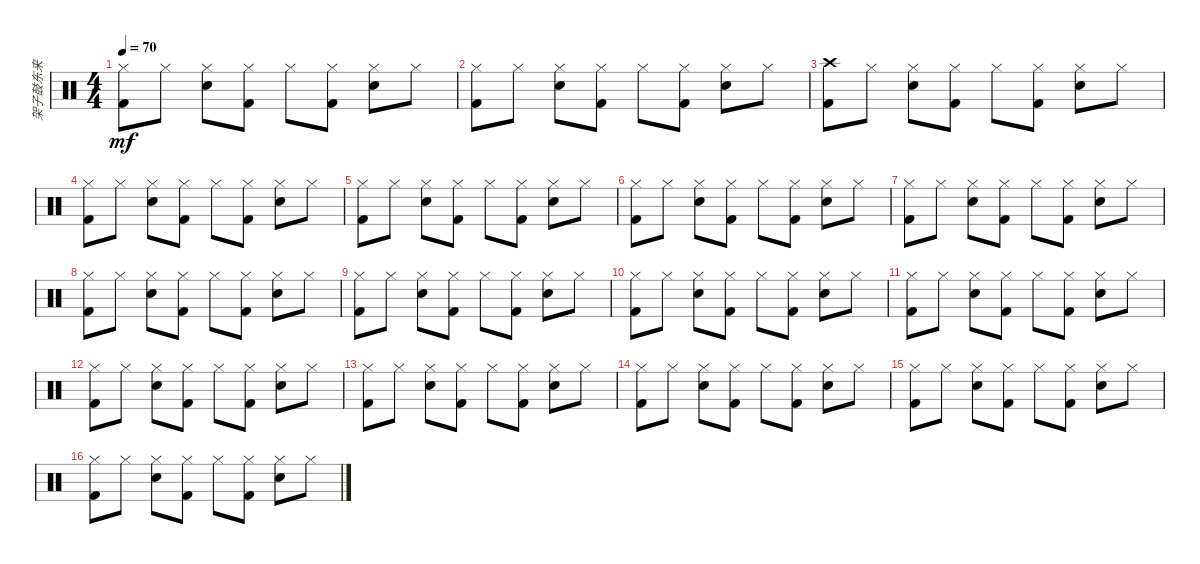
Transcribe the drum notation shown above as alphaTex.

\track ("架子鼓东来" "架子鼓东来") {instrument percussion}
\staff {score}
\articulation defaults
\ts (4 4)
\tempo 70
\clef neutral
\ks c
("Hi-Hat (closed)" "Kick (hit) 2").8{dy mf} "Hi-Hat (closed)".8 ("Hi-Hat (closed)" "Snare (hit) 2").8 ("Hi-Hat (closed)" "Kick (hit) 2").8 "Hi-Hat (closed)".8 ("Hi-Hat (closed)" "Kick (hit) 2").8 ("Hi-Hat (closed)" "Snare (hit) 2").8 "Hi-Hat (closed)".8 |
("Hi-Hat (closed)" "Kick (hit) 2").8 "Hi-Hat (closed)".8 ("Hi-Hat (closed)" "Snare (hit) 2").8 ("Hi-Hat (closed)" "Kick (hit) 2").8 "Hi-Hat (closed)".8 ("Hi-Hat (closed)" "Kick (hit) 2").8 ("Hi-Hat (closed)" "Snare (hit) 2").8 "Hi-Hat (closed)".8 |
("Crash high (hit)" "Kick (hit) 2").8 "Hi-Hat (closed)".8 ("Hi-Hat (closed)" "Snare (hit) 2").8 ("Hi-Hat (closed)" "Kick (hit) 2").8 "Hi-Hat (closed)".8 ("Hi-Hat (closed)" "Kick (hit) 2").8 ("Hi-Hat (closed)" "Snare (hit) 2").8 "Hi-Hat (closed)".8 |
("Hi-Hat (closed)" "Kick (hit) 2").8 "Hi-Hat (closed)".8 ("Hi-Hat (closed)" "Snare (hit) 2").8 ("Hi-Hat (closed)" "Kick (hit) 2").8 "Hi-Hat (closed)".8 ("Hi-Hat (closed)" "Kick (hit) 2").8 ("Hi-Hat (closed)" "Snare (hit) 2").8 "Hi-Hat (closed)".8 |
("Hi-Hat (closed)" "Kick (hit) 2").8 "Hi-Hat (closed)".8 ("Hi-Hat (closed)" "Snare (hit) 2").8 ("Hi-Hat (closed)" "Kick (hit) 2").8 "Hi-Hat (closed)".8 ("Hi-Hat (closed)" "Kick (hit) 2").8 ("Hi-Hat (closed)" "Snare (hit) 2").8 "Hi-Hat (closed)".8 |
("Hi-Hat (closed)" "Kick (hit) 2").8 "Hi-Hat (closed)".8 ("Hi-Hat (closed)" "Snare (hit) 2").8 ("Hi-Hat (closed)" "Kick (hit) 2").8 "Hi-Hat (closed)".8 ("Hi-Hat (closed)" "Kick (hit) 2").8 ("Hi-Hat (closed)" "Snare (hit) 2").8 "Hi-Hat (closed)".8 |
("Hi-Hat (closed)" "Kick (hit) 2").8 "Hi-Hat (closed)".8 ("Hi-Hat (closed)" "Snare (hit) 2").8 ("Hi-Hat (closed)" "Kick (hit) 2").8 "Hi-Hat (closed)".8 ("Hi-Hat (closed)" "Kick (hit) 2").8 ("Hi-Hat (closed)" "Snare (hit) 2").8 "Hi-Hat (closed)".8 |
("Hi-Hat (closed)" "Kick (hit) 2").8 "Hi-Hat (closed)".8 ("Hi-Hat (closed)" "Snare (hit) 2").8 ("Hi-Hat (closed)" "Kick (hit) 2").8 "Hi-Hat (closed)".8 ("Hi-Hat (closed)" "Kick (hit) 2").8 ("Hi-Hat (closed)" "Snare (hit) 2").8 "Hi-Hat (closed)".8 |
("Hi-Hat (closed)" "Kick (hit) 2").8 "Hi-Hat (closed)".8 ("Hi-Hat (closed)" "Snare (hit) 2").8 ("Hi-Hat (closed)" "Kick (hit) 2").8 "Hi-Hat (closed)".8 ("Hi-Hat (closed)" "Kick (hit) 2").8 ("Hi-Hat (closed)" "Snare (hit) 2").8 "Hi-Hat (closed)".8 |
("Hi-Hat (closed)" "Kick (hit) 2").8 "Hi-Hat (closed)".8 ("Hi-Hat (closed)" "Snare (hit) 2").8 ("Hi-Hat (closed)" "Kick (hit) 2").8 "Hi-Hat (closed)".8 ("Hi-Hat (closed)" "Kick (hit) 2").8 ("Hi-Hat (closed)" "Snare (hit) 2").8 "Hi-Hat (closed)".8 |
("Hi-Hat (closed)" "Kick (hit) 2").8 "Hi-Hat (closed)".8 ("Hi-Hat (closed)" "Snare (hit) 2").8 ("Hi-Hat (closed)" "Kick (hit) 2").8 "Hi-Hat (closed)".8 ("Hi-Hat (closed)" "Kick (hit) 2").8 ("Hi-Hat (closed)" "Snare (hit) 2").8 "Hi-Hat (closed)".8 |
("Hi-Hat (closed)" "Kick (hit) 2").8 "Hi-Hat (closed)".8 ("Hi-Hat (closed)" "Snare (hit) 2").8 ("Hi-Hat (closed)" "Kick (hit) 2").8 "Hi-Hat (closed)".8 ("Hi-Hat (closed)" "Kick (hit) 2").8 ("Hi-Hat (closed)" "Snare (hit) 2").8 "Hi-Hat (closed)".8 |
("Hi-Hat (closed)" "Kick (hit) 2").8 "Hi-Hat (closed)".8 ("Hi-Hat (closed)" "Snare (hit) 2").8 ("Hi-Hat (closed)" "Kick (hit) 2").8 "Hi-Hat (closed)".8 ("Hi-Hat (closed)" "Kick (hit) 2").8 ("Hi-Hat (closed)" "Snare (hit) 2").8 "Hi-Hat (closed)".8 |
("Hi-Hat (closed)" "Kick (hit) 2").8 "Hi-Hat (closed)".8 ("Hi-Hat (closed)" "Snare (hit) 2").8 ("Hi-Hat (closed)" "Kick (hit) 2").8 "Hi-Hat (closed)".8 ("Hi-Hat (closed)" "Kick (hit) 2").8 ("Hi-Hat (closed)" "Snare (hit) 2").8 "Hi-Hat (closed)".8 |
("Hi-Hat (closed)" "Kick (hit) 2").8 "Hi-Hat (closed)".8 ("Hi-Hat (closed)" "Snare (hit) 2").8 ("Hi-Hat (closed)" "Kick (hit) 2").8 "Hi-Hat (closed)".8 ("Hi-Hat (closed)" "Kick (hit) 2").8 ("Hi-Hat (closed)" "Snare (hit) 2").8 "Hi-Hat (closed)".8 |
("Hi-Hat (closed)" "Kick (hit) 2").8 "Hi-Hat (closed)".8 ("Hi-Hat (closed)" "Snare (hit) 2").8 ("Hi-Hat (closed)" "Kick (hit) 2").8 "Hi-Hat (closed)".8 ("Hi-Hat (closed)" "Kick (hit) 2").8 ("Hi-Hat (closed)" "Snare (hit) 2").8 "Hi-Hat (closed)".8
